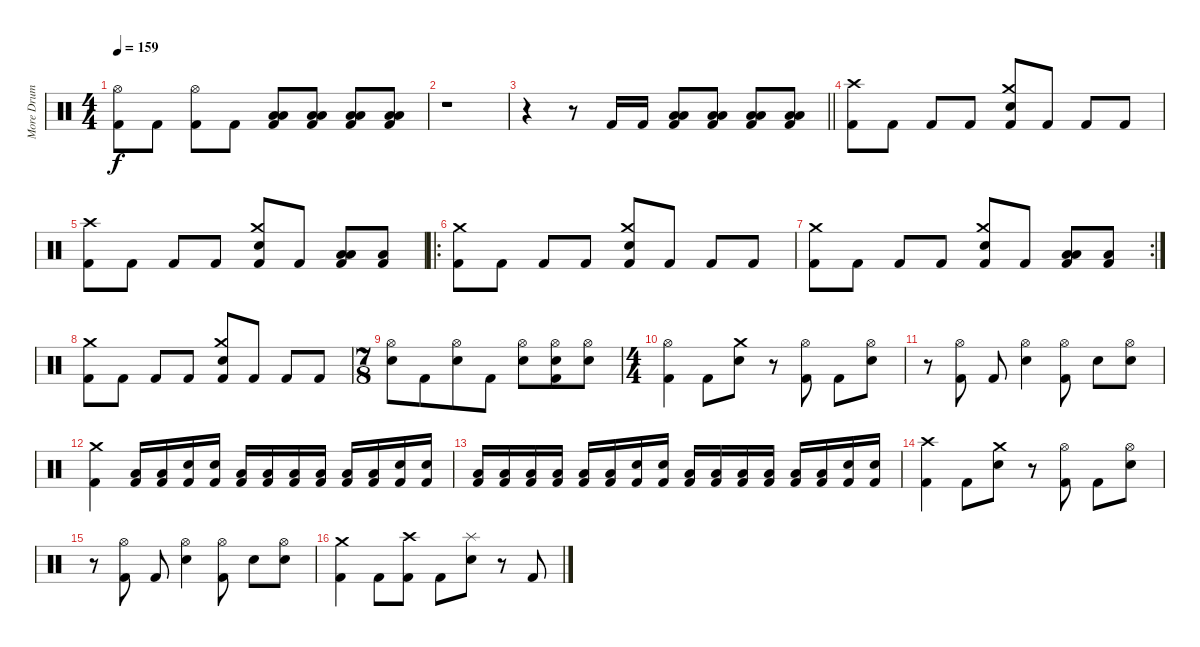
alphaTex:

\track ("More Drum Sound" "More Drum ") {instrument percussion}
\staff {score}
\articulation defaults
\ts (4 4)
\tempo 159
\clef neutral
\ks c
("Hi-Hat (open)" "Kick (hit) 2").8{dy f} "Kick (hit) 2".8 ("Hi-Hat (open)" "Kick (hit) 2").8 "Kick (hit) 2".8 ("Low Floor Tom (hit)" "Low Floor Tom (hit)" "Kick (hit) 2").8 ("Low Floor Tom (hit)" "Low Floor Tom (hit)" "Kick (hit) 2").8 ("Low Floor Tom (hit)" "Low Floor Tom (hit)" "Kick (hit) 2").8 ("Low Floor Tom (hit)" "Low Floor Tom (hit)" "Kick (hit) 2").8 |
r.1 |
\barLineRight lightlight
r.4 r.8 "Kick (hit) 2".16 "Kick (hit) 2".16 ("Low Floor Tom (hit)" "Low Floor Tom (hit)" "Kick (hit) 2").8 ("Low Floor Tom (hit)" "Low Floor Tom (hit)" "Kick (hit) 2").8 ("Low Floor Tom (hit)" "Low Floor Tom (hit)" "Kick (hit) 2").8 ("Low Floor Tom (hit)" "Low Floor Tom (hit)" "Kick (hit) 2").8 |
("Crash high (hit)" "Kick (hit) 2").8 "Kick (hit) 2".8 "Kick (hit) 2".8 "Kick (hit) 2".8 ("Crash medium (hit)" "Snare (hit) 2" "Kick (hit) 2").8 "Kick (hit) 2".8 "Kick (hit) 2".8 "Kick (hit) 2".8 |
("Crash high (hit)" "Kick (hit) 2").8 "Kick (hit) 2".8 "Kick (hit) 2".8 "Kick (hit) 2".8 ("Crash medium (hit)" "Snare (hit) 2" "Kick (hit) 2").8 "Kick (hit) 2".8 ("Low Floor Tom (hit)" "Low Floor Tom (hit)" "Kick (hit) 2").8 ("Low Floor Tom (hit)" "Kick (hit) 2").8 |
\ro
("Crash medium (hit)" "Kick (hit) 2").8 "Kick (hit) 2".8 "Kick (hit) 2".8 "Kick (hit) 2".8 ("Crash medium (hit)" "Snare (hit) 2" "Kick (hit) 2").8 "Kick (hit) 2".8 "Kick (hit) 2".8 "Kick (hit) 2".8 |
\rc 2
("Crash medium (hit)" "Kick (hit) 2").8 "Kick (hit) 2".8 "Kick (hit) 2".8 "Kick (hit) 2".8 ("Crash medium (hit)" "Snare (hit) 2" "Kick (hit) 2").8 "Kick (hit) 2".8 ("Low Floor Tom (hit)" "Low Floor Tom (hit)" "Kick (hit) 2").8 ("Low Floor Tom (hit)" "Kick (hit) 2").8 |
("Crash medium (hit)" "Kick (hit) 2").8 "Kick (hit) 2".8 "Kick (hit) 2".8 "Kick (hit) 2".8 ("Crash medium (hit)" "Snare (hit) 2" "Kick (hit) 2").8 "Kick (hit) 2".8 "Kick (hit) 2".8 "Kick (hit) 2".8 |
\ts (7 8)
("Hi-Hat (open)" "Snare (hit) 2").8 "Kick (hit) 2".8 ("Hi-Hat (open)" "Snare (hit) 2").8 "Kick (hit) 2".8 ("Hi-Hat (open)" "Snare (hit) 2").8 ("Hi-Hat (open)" "Snare (hit) 2" "Kick (hit) 2").8 ("Hi-Hat (open)" "Snare (hit) 2").8 |
\ts (4 4)
("Hi-Hat (open)" "Kick (hit) 2").4 "Kick (hit) 2".8 ("Crash medium (hit)" "Snare (hit) 2").8 r.8 ("Hi-Hat (open)" "Kick (hit) 2").8 "Kick (hit) 2".8 ("Hi-Hat (open)" "Snare (hit) 2").8 |
r.8 ("Hi-Hat (open)" "Kick (hit) 2").8 "Kick (hit) 2".8 ("Hi-Hat (open)" "Snare (hit) 2").4 ("Hi-Hat (open)" "Kick (hit) 2").8 "Snare (hit) 2".8 ("Hi-Hat (open)" "Snare (hit) 2").8 |
("Crash medium (hit)" "Kick (hit) 2").4 ("Low Tom (hit)" "Kick (hit) 2").16 ("Low Tom (hit)" "Kick (hit) 2").16 ("Snare (hit) 2" "Kick (hit) 2").16 ("Snare (hit) 2" "Kick (hit) 2").16 ("Low Tom (hit)" "Kick (hit) 2").16 ("Low Tom (hit)" "Kick (hit) 2").16 ("Low Tom (hit)" "Kick (hit) 2").16 ("Low Tom (hit)" "Kick (hit) 2").16 ("Low Tom (hit)" "Kick (hit) 2").16 ("Low Tom (hit)" "Kick (hit) 2").16 ("Snare (hit) 2" "Kick (hit) 2").16 ("Snare (hit) 2" "Kick (hit) 2").16 |
("Low Tom (hit)" "Kick (hit) 2").16 ("Low Tom (hit)" "Kick (hit) 2").16 ("Low Tom (hit)" "Kick (hit) 2").16 ("Low Tom (hit)" "Kick (hit) 2").16 ("Low Tom (hit)" "Kick (hit) 2").16 ("Low Tom (hit)" "Kick (hit) 2").16 ("Snare (hit) 2" "Kick (hit) 2").16 ("Snare (hit) 2" "Kick (hit) 2").16 ("Low Tom (hit)" "Kick (hit) 2").16 ("Low Tom (hit)" "Kick (hit) 2").16 ("Low Tom (hit)" "Kick (hit) 2").16 ("Low Tom (hit)" "Kick (hit) 2").16 ("Low Tom (hit)" "Kick (hit) 2").16 ("Low Tom (hit)" "Kick (hit) 2").16 ("Snare (hit) 2" "Kick (hit) 2").16 ("Snare (hit) 2" "Kick (hit) 2").16 |
("Crash high (hit)" "Kick (hit) 2").4 "Kick (hit) 2".8 ("Crash medium (hit)" "Snare (hit) 2").8 r.8 ("Hi-Hat (open)" "Kick (hit) 2").8 "Kick (hit) 2".8 ("Hi-Hat (open)" "Snare (hit) 2").8 |
r.8 ("Hi-Hat (open)" "Kick (hit) 2").8 "Kick (hit) 2".8 ("Hi-Hat (open)" "Snare (hit) 2").4 ("Hi-Hat (open)" "Kick (hit) 2").8 "Snare (hit) 2".8 ("Hi-Hat (open)" "Snare (hit) 2").8 |
("Crash medium (hit)" "Kick (hit) 2").4 "Kick (hit) 2".8 ("Crash high (hit)" "Kick (hit) 2").8 "Kick (hit) 2".8 ("Splash (hit)" "Snare (hit) 2").8 r.8 "Kick (hit) 2".8
